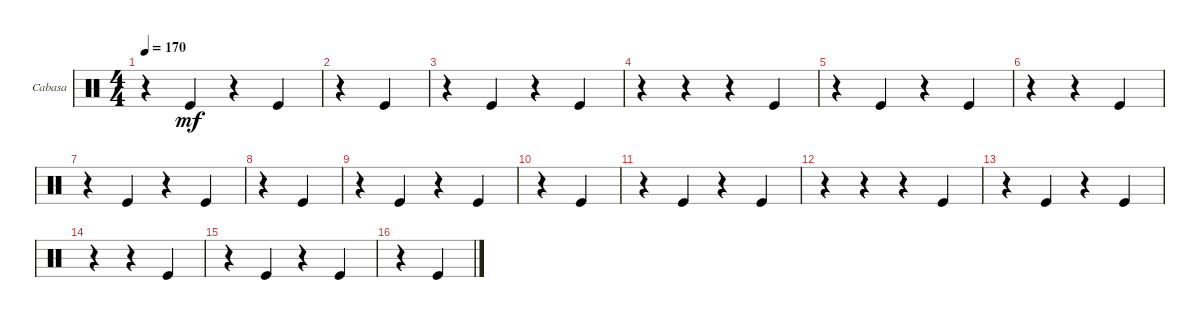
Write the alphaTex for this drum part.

\defaultSystemsLayout 4
\bracketExtendMode groupsimilarinstruments
\firstSystemTrackNameOrientation horizontal
\otherSystemsTrackNameOrientation horizontal
\track ("Cabasa" "Cabasa") {instrument percussion}
\staff {score}
\articulation defaults
\ts (4 4)
\tempo 170
\clef neutral
\ks c
r.4{dy mf} "Kick (hit)".4 r.4 "Kick (hit)".4 |
r.4 "Kick (hit)".4 |
r.4 "Kick (hit)".4 r.4 "Kick (hit)".4 |
r.4 r.4 r.4 "Kick (hit)".4 |
r.4 "Kick (hit)".4 r.4 "Kick (hit)".4 |
r.4 r.4 "Kick (hit)".4 |
r.4 "Kick (hit)".4 r.4 "Kick (hit)".4 |
r.4 "Kick (hit)".4 |
r.4 "Kick (hit)".4 r.4 "Kick (hit)".4 |
r.4 "Kick (hit)".4 |
r.4 "Kick (hit)".4 r.4 "Kick (hit)".4 |
r.4 r.4 r.4 "Kick (hit)".4 |
r.4 "Kick (hit)".4 r.4 "Kick (hit)".4 |
r.4 r.4 "Kick (hit)".4 |
r.4 "Kick (hit)".4 r.4 "Kick (hit)".4 |
r.4 "Kick (hit)".4
